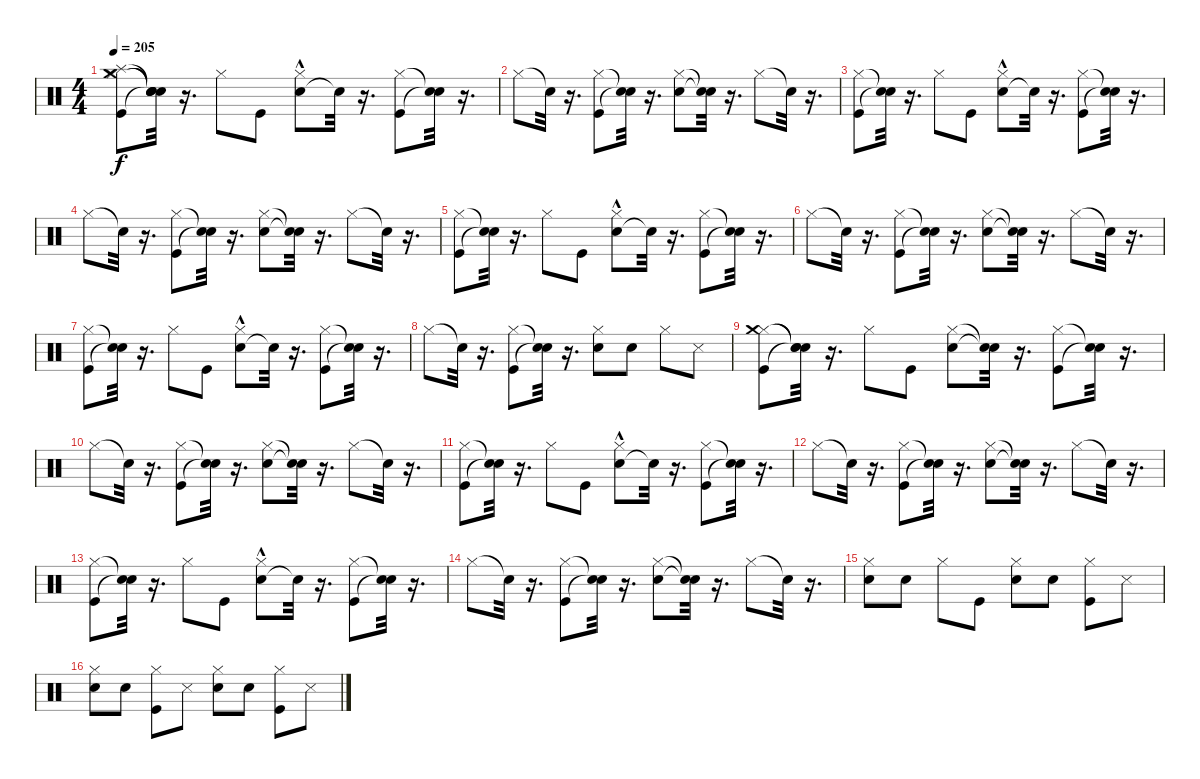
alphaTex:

\track "" {instrument percussion}
\staff {score}
\articulation defaults
\ts (4 4)
\tempo 205
\clef neutral
\ks c
("Kick (hit)" "Crash medium (hit)" "Hi-Hat (closed)" "Splash (hit)").8{dy f} ("Snare (hit)"{t} "Snare (hit)"{t} "Snare (hit)"{t} "Snare (hit)"{t}).32 r.16{d} "Hi-Hat (closed)".8 "Kick (hit)".8 ("Electric Snare (hit)"{hac} "Hi-Hat (closed)").8 "Snare (hit)"{t}.32 r.16{d} ("Hi-Hat (closed)" "Kick (hit)").8 ("Snare (hit)"{t} "Snare (hit)"{t}).32 r.16{d} |
"Hi-Hat (closed)".8 "Snare (hit)"{t}.32 r.16{d} ("Hi-Hat (closed)" "Kick (hit)").8 ("Snare (hit)"{t} "Snare (hit)"{t}).32 r.16{d} ("Hi-Hat (closed)" "Electric Snare (hit)").8 ("Snare (hit)"{t} "Snare (hit)"{t}).32 r.16{d} "Hi-Hat (closed)".8 "Snare (hit)"{t}.32 r.16{d} |
("Kick (hit)" "Hi-Hat (closed)").8 ("Snare (hit)"{t} "Snare (hit)"{t}).32 r.16{d} "Hi-Hat (closed)".8 "Kick (hit)".8 ("Electric Snare (hit)"{hac} "Hi-Hat (closed)").8 "Snare (hit)"{t}.32 r.16{d} ("Hi-Hat (closed)" "Kick (hit)").8 ("Snare (hit)"{t} "Snare (hit)"{t}).32 r.16{d} |
"Hi-Hat (closed)".8 "Snare (hit)"{t}.32 r.16{d} ("Hi-Hat (closed)" "Kick (hit)").8 ("Snare (hit)"{t} "Snare (hit)"{t}).32 r.16{d} ("Hi-Hat (closed)" "Electric Snare (hit)").8 ("Snare (hit)"{t} "Snare (hit)"{t}).32 r.16{d} "Hi-Hat (closed)".8 "Snare (hit)"{t}.32 r.16{d} |
("Kick (hit)" "Hi-Hat (closed)").8 ("Snare (hit)"{t} "Snare (hit)"{t}).32 r.16{d} "Hi-Hat (closed)".8 "Kick (hit)".8 ("Electric Snare (hit)"{hac} "Hi-Hat (closed)").8 "Snare (hit)"{t}.32 r.16{d} ("Hi-Hat (closed)" "Kick (hit)").8 ("Snare (hit)"{t} "Snare (hit)"{t}).32 r.16{d} |
"Hi-Hat (closed)".8 "Snare (hit)"{t}.32 r.16{d} ("Hi-Hat (closed)" "Kick (hit)").8 ("Snare (hit)"{t} "Snare (hit)"{t}).32 r.16{d} ("Hi-Hat (closed)" "Electric Snare (hit)").8 ("Snare (hit)"{t} "Snare (hit)"{t}).32 r.16{d} "Hi-Hat (closed)".8 "Snare (hit)"{t}.32 r.16{d} |
("Kick (hit)" "Hi-Hat (closed)").8 ("Snare (hit)"{t} "Snare (hit)"{t}).32 r.16{d} "Hi-Hat (closed)".8 "Kick (hit)".8 ("Electric Snare (hit)"{hac} "Hi-Hat (closed)").8 "Snare (hit)"{t}.32 r.16{d} ("Hi-Hat (closed)" "Kick (hit)").8 ("Snare (hit)"{t} "Snare (hit)"{t}).32 r.16{d} |
"Hi-Hat (closed)".8 "Snare (hit)"{t}.32 r.16{d} ("Hi-Hat (closed)" "Kick (hit)").8 ("Snare (hit)"{t} "Snare (hit)"{t}).32 r.16{d} ("Hi-Hat (closed)" "Electric Snare (hit)").8 "Electric Snare (hit)".8 "Hi-Hat (closed)".8 "Metronome (hit)".8 |
("Kick (hit)" "Hi-Hat (closed)" "Crash medium (hit)").8 ("Snare (hit)"{t} "Snare (hit)"{t} "Snare (hit)"{t}).32 r.16{d} "Hi-Hat (closed)".8 "Kick (hit)".8 ("Hi-Hat (closed)" "Electric Snare (hit)").8 ("Snare (hit)"{t} "Snare (hit)"{t}).32 r.16{d} ("Hi-Hat (closed)" "Kick (hit)").8 ("Snare (hit)"{t} "Snare (hit)"{t}).32 r.16{d} |
"Hi-Hat (closed)".8 "Snare (hit)"{t}.32 r.16{d} ("Hi-Hat (closed)" "Kick (hit)").8 ("Snare (hit)"{t} "Snare (hit)"{t}).32 r.16{d} ("Hi-Hat (closed)" "Electric Snare (hit)").8 ("Snare (hit)"{t} "Snare (hit)"{t}).32 r.16{d} "Hi-Hat (closed)".8 "Snare (hit)"{t}.32 r.16{d} |
("Kick (hit)" "Hi-Hat (closed)").8 ("Snare (hit)"{t} "Snare (hit)"{t}).32 r.16{d} "Hi-Hat (closed)".8 "Kick (hit)".8 ("Electric Snare (hit)"{hac} "Hi-Hat (closed)").8 "Snare (hit)"{t}.32 r.16{d} ("Hi-Hat (closed)" "Kick (hit)").8 ("Snare (hit)"{t} "Snare (hit)"{t}).32 r.16{d} |
"Hi-Hat (closed)".8 "Snare (hit)"{t}.32 r.16{d} ("Hi-Hat (closed)" "Kick (hit)").8 ("Snare (hit)"{t} "Snare (hit)"{t}).32 r.16{d} ("Hi-Hat (closed)" "Electric Snare (hit)").8 ("Snare (hit)"{t} "Snare (hit)"{t}).32 r.16{d} "Hi-Hat (closed)".8 "Snare (hit)"{t}.32 r.16{d} |
("Kick (hit)" "Hi-Hat (closed)").8 ("Snare (hit)"{t} "Snare (hit)"{t}).32 r.16{d} "Hi-Hat (closed)".8 "Kick (hit)".8 ("Electric Snare (hit)"{hac} "Hi-Hat (closed)").8 "Snare (hit)"{t}.32 r.16{d} ("Hi-Hat (closed)" "Kick (hit)").8 ("Snare (hit)"{t} "Snare (hit)"{t}).32 r.16{d} |
"Hi-Hat (closed)".8 "Snare (hit)"{t}.32 r.16{d} ("Hi-Hat (closed)" "Kick (hit)").8 ("Snare (hit)"{t} "Snare (hit)"{t}).32 r.16{d} ("Hi-Hat (closed)" "Electric Snare (hit)").8 ("Snare (hit)"{t} "Snare (hit)"{t}).32 r.16{d} "Hi-Hat (closed)".8 "Snare (hit)"{t}.32 r.16{d} |
("Hi-Hat (closed)" "Snare (hit) 2").8 "Electric Snare (hit)".8 "Hi-Hat (closed)".8 "Kick (hit)".8 ("Snare (hit) 2" "Hi-Hat (closed)").8 "Electric Snare (hit)".8 ("Kick (hit)" "Hi-Hat (closed)").8 "Metronome (hit)".8 |
("Snare (hit) 2" "Hi-Hat (closed)").8 "Electric Snare (hit)".8 ("Kick (hit)" "Hi-Hat (closed)").8 "Metronome (hit)".8 ("Snare (hit) 2" "Hi-Hat (closed)").8 "Electric Snare (hit)".8 ("Hi-Hat (closed)" "Kick (hit)").8 "Metronome (hit)".8
